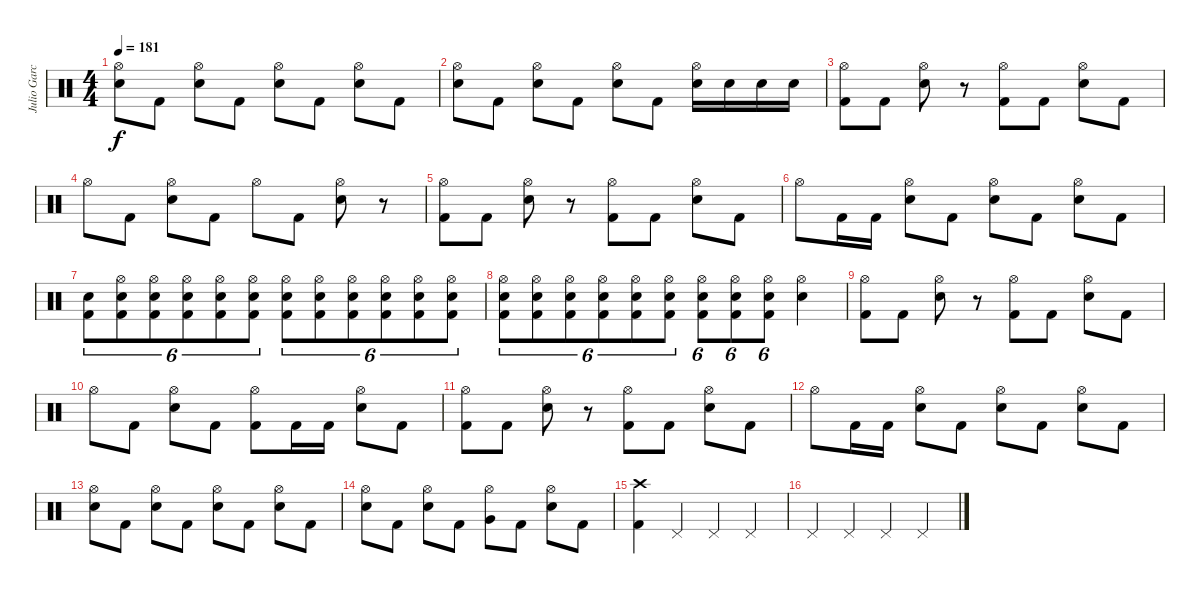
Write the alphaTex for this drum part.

\track ("Julio Garcia" "Julio Garc") {instrument percussion}
\staff {score}
\articulation defaults
\ts (4 4)
\tempo 181
\clef neutral
\ks c
("Hi-Hat (open)" "Electric Snare (hit)").8{dy f} "Kick (hit) 2".8 ("Hi-Hat (open)" "Electric Snare (hit)").8 "Kick (hit) 2".8 ("Hi-Hat (open)" "Electric Snare (hit)").8 "Kick (hit) 2".8 ("Hi-Hat (open)" "Electric Snare (hit)").8 "Kick (hit) 2".8 |
("Hi-Hat (open)" "Electric Snare (hit)").8 "Kick (hit) 2".8 ("Hi-Hat (open)" "Electric Snare (hit)").8 "Kick (hit) 2".8 ("Hi-Hat (open)" "Electric Snare (hit)").8 "Kick (hit) 2".8 ("Hi-Hat (open)" "Electric Snare (hit)").16 "Electric Snare (hit)".16 "Electric Snare (hit)".16 "Electric Snare (hit)".16 |
("Hi-Hat (open)" "Kick (hit) 2").8 "Kick (hit) 2".8 ("Hi-Hat (open)" "Electric Snare (hit)").8 r.8 ("Hi-Hat (open)" "Kick (hit) 2").8 "Kick (hit) 2".8 ("Hi-Hat (open)" "Electric Snare (hit)").8 "Kick (hit) 2".8 |
"Hi-Hat (open)".8 "Kick (hit) 2".8 ("Hi-Hat (open)" "Electric Snare (hit)").8 "Kick (hit) 2".8 "Hi-Hat (open)".8 "Kick (hit) 2".8 ("Hi-Hat (open)" "Electric Snare (hit)").8 r.8 |
("Hi-Hat (open)" "Kick (hit) 2").8 "Kick (hit) 2".8 ("Hi-Hat (open)" "Electric Snare (hit)").8 r.8 ("Hi-Hat (open)" "Kick (hit) 2").8 "Kick (hit) 2".8 ("Hi-Hat (open)" "Electric Snare (hit)").8 "Kick (hit) 2".8 |
"Hi-Hat (open)".8 "Kick (hit) 2".16 "Kick (hit) 2".16 ("Hi-Hat (open)" "Electric Snare (hit)").8 "Kick (hit) 2".8 ("Hi-Hat (open)" "Electric Snare (hit)").8 "Kick (hit) 2".8 ("Hi-Hat (open)" "Electric Snare (hit)").8 "Kick (hit) 2".8 |
("Electric Snare (hit)" "Kick (hit) 2").8{tu (6 4)} ("Hi-Hat (open)" "Electric Snare (hit)" "Kick (hit) 2").8{tu (6 4)} ("Hi-Hat (open)" "Electric Snare (hit)" "Kick (hit) 2").8{tu (6 4)} ("Hi-Hat (open)" "Electric Snare (hit)" "Kick (hit) 2").8{tu (6 4)} ("Hi-Hat (open)" "Electric Snare (hit)" "Kick (hit) 2").8{tu (6 4)} ("Hi-Hat (open)" "Electric Snare (hit)" "Kick (hit) 2").8{tu (6 4)} ("Hi-Hat (open)" "Electric Snare (hit)" "Kick (hit) 2").8{tu (6 4)} ("Hi-Hat (open)" "Electric Snare (hit)" "Kick (hit) 2").8{tu (6 4)} ("Hi-Hat (open)" "Electric Snare (hit)" "Kick (hit) 2").8{tu (6 4)} ("Hi-Hat (open)" "Electric Snare (hit)" "Kick (hit) 2").8{tu (6 4)} ("Hi-Hat (open)" "Electric Snare (hit)" "Kick (hit) 2").8{tu (6 4)} ("Hi-Hat (open)" "Electric Snare (hit)" "Kick (hit) 2").8{tu (6 4)} |
("Hi-Hat (open)" "Electric Snare (hit)" "Kick (hit) 2").8{tu (6 4)} ("Hi-Hat (open)" "Electric Snare (hit)" "Kick (hit) 2").8{tu (6 4)} ("Hi-Hat (open)" "Electric Snare (hit)" "Kick (hit) 2").8{tu (6 4)} ("Hi-Hat (open)" "Electric Snare (hit)" "Kick (hit) 2").8{tu (6 4)} ("Hi-Hat (open)" "Electric Snare (hit)" "Kick (hit) 2").8{tu (6 4)} ("Hi-Hat (open)" "Electric Snare (hit)" "Kick (hit) 2").8{tu (6 4)} ("Hi-Hat (open)" "Electric Snare (hit)" "Kick (hit) 2").8{tu (6 4)} ("Hi-Hat (open)" "Electric Snare (hit)" "Kick (hit) 2").8{tu (6 4)} ("Hi-Hat (open)" "Electric Snare (hit)" "Kick (hit) 2").8{tu (6 4)} ("Hi-Hat (open)" "Electric Snare (hit)").4 |
("Hi-Hat (open)" "Kick (hit) 2").8 "Kick (hit) 2".8 ("Hi-Hat (open)" "Electric Snare (hit)").8 r.8 ("Hi-Hat (open)" "Kick (hit) 2").8 "Kick (hit) 2".8 ("Hi-Hat (open)" "Electric Snare (hit)").8 "Kick (hit) 2".8 |
"Hi-Hat (open)".8 "Kick (hit) 2".8 ("Hi-Hat (open)" "Electric Snare (hit)").8 "Kick (hit) 2".8 ("Hi-Hat (open)" "Kick (hit) 2").8 "Kick (hit) 2".16 "Kick (hit) 2".16 ("Hi-Hat (open)" "Electric Snare (hit)").8 "Kick (hit) 2".8 |
("Hi-Hat (open)" "Kick (hit) 2").8 "Kick (hit) 2".8 ("Hi-Hat (open)" "Electric Snare (hit)").8 r.8 ("Hi-Hat (open)" "Kick (hit) 2").8 "Kick (hit) 2".8 ("Hi-Hat (open)" "Electric Snare (hit)").8 "Kick (hit) 2".8 |
"Hi-Hat (open)".8 "Kick (hit) 2".16 "Kick (hit) 2".16 ("Hi-Hat (open)" "Electric Snare (hit)").8 "Kick (hit) 2".8 ("Hi-Hat (open)" "Electric Snare (hit)").8 "Kick (hit) 2".8 ("Hi-Hat (open)" "Electric Snare (hit)").8 "Kick (hit) 2".8 |
("Hi-Hat (open)" "Electric Snare (hit)").8 "Kick (hit) 2".8 ("Hi-Hat (open)" "Electric Snare (hit)").8 "Kick (hit) 2".8 ("Hi-Hat (open)" "Electric Snare (hit)").8 "Kick (hit) 2".8 ("Hi-Hat (open)" "Electric Snare (hit)").8 "Kick (hit) 2".8 |
("Hi-Hat (open)" "Electric Snare (hit)").8 "Kick (hit) 2".8 ("Hi-Hat (open)" "Electric Snare (hit)").8 "Kick (hit) 2".8 ("Hi-Hat (open)" "Very Low Tom (hit)").8 "Kick (hit) 2".8 ("Hi-Hat (open)" "Electric Snare (hit)").8 "Kick (hit) 2".8 |
("Crash high (hit)" "Kick (hit) 2").4 "Pedal Hi-Hat (hit)".4 "Pedal Hi-Hat (hit)".4 "Pedal Hi-Hat (hit)".4 |
"Pedal Hi-Hat (hit)".4 "Pedal Hi-Hat (hit)".4 "Pedal Hi-Hat (hit)".4 "Pedal Hi-Hat (hit)".4
